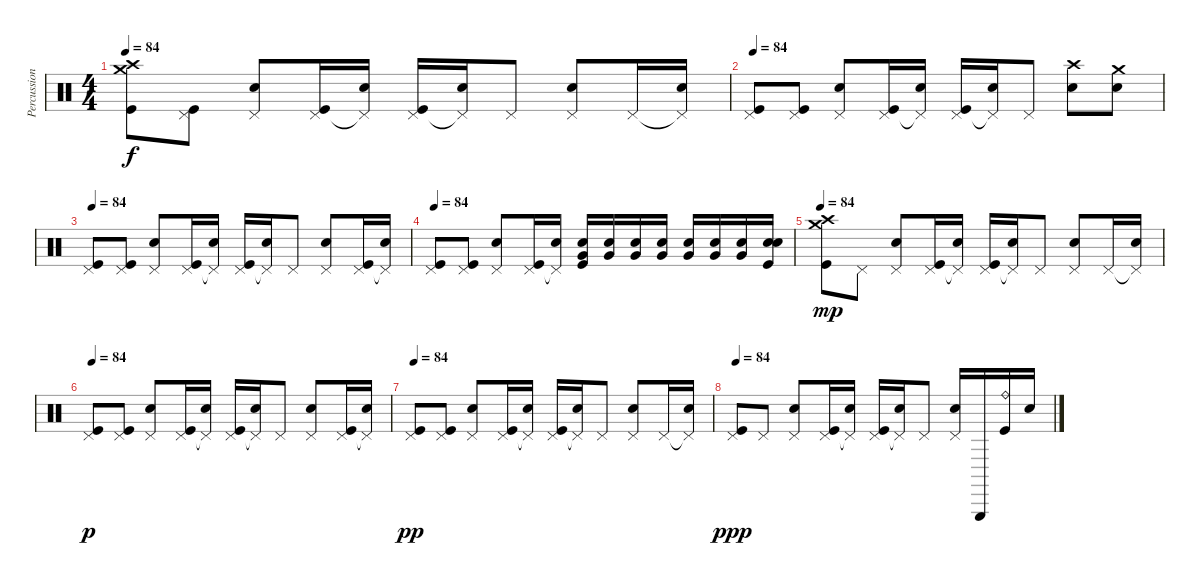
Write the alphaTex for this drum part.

\track ("Percussion" "Percussion") {instrument percussion}
\staff {score}
\articulation defaults
\ts (4 4)
\tempo 84
\clef neutral
\ks c
("Crash medium (hit)" "Crash high (hit)" "Kick (hit)").8{dy f} ("Pedal Hi-Hat (hit)" "Kick (hit)").8 ("Pedal Hi-Hat (hit)" "Electric Snare (hit)").8 ("Pedal Hi-Hat (hit)" "Kick (hit)").16 ("Pedal Hi-Hat (hit)"{t} "Electric Snare (hit)").16 ("Pedal Hi-Hat (hit)" "Kick (hit)").16 ("Pedal Hi-Hat (hit)"{t} "Electric Snare (hit)").16 "Pedal Hi-Hat (hit)".8 ("Pedal Hi-Hat (hit)" "Electric Snare (hit)").8 "Pedal Hi-Hat (hit)".16 ("Pedal Hi-Hat (hit)"{t} "Electric Snare (hit)").16 |
\tempo 84
("Pedal Hi-Hat (hit)" "Kick (hit)").8 ("Pedal Hi-Hat (hit)" "Kick (hit)").8 ("Pedal Hi-Hat (hit)" "Electric Snare (hit)").8 ("Pedal Hi-Hat (hit)" "Kick (hit)").16 ("Pedal Hi-Hat (hit)"{t} "Electric Snare (hit)").16 ("Pedal Hi-Hat (hit)" "Kick (hit)").16 ("Pedal Hi-Hat (hit)"{t} "Electric Snare (hit)").16 "Pedal Hi-Hat (hit)".8 ("Crash high (hit)" "Electric Snare (hit)").8 ("Crash medium (hit)" "Electric Snare (hit)").8 |
\tempo 84
("Pedal Hi-Hat (hit)" "Kick (hit)").8 ("Pedal Hi-Hat (hit)" "Kick (hit)").8 ("Pedal Hi-Hat (hit)" "Electric Snare (hit)").8 ("Pedal Hi-Hat (hit)" "Kick (hit)").16 ("Pedal Hi-Hat (hit)"{t} "Electric Snare (hit)").16 ("Pedal Hi-Hat (hit)" "Kick (hit)").16 ("Pedal Hi-Hat (hit)"{t} "Electric Snare (hit)").16 "Pedal Hi-Hat (hit)".8 ("Pedal Hi-Hat (hit)" "Electric Snare (hit)").8 ("Pedal Hi-Hat (hit)" "Kick (hit)").16 ("Pedal Hi-Hat (hit)"{t} "Electric Snare (hit)").16 |
\tempo 84
("Pedal Hi-Hat (hit)" "Kick (hit)").8 ("Pedal Hi-Hat (hit)" "Kick (hit)").8 ("Pedal Hi-Hat (hit)" "Electric Snare (hit)").8 ("Pedal Hi-Hat (hit)" "Kick (hit)").16 ("Pedal Hi-Hat (hit)"{t} "Electric Snare (hit)").16 ("Very Low Tom (hit)" "Electric Snare (hit)" "Kick (hit)").16 ("Very Low Tom (hit)" "Electric Snare (hit)").16 ("Very Low Tom (hit)" "Electric Snare (hit)").16 ("Very Low Tom (hit)" "Electric Snare (hit)").16 ("Very Low Tom (hit)" "Electric Snare (hit)").16 ("Very Low Tom (hit)" "Electric Snare (hit)").16 ("Very Low Tom (hit)" "Electric Snare (hit)").16 ("Electric Snare (hit)" "Electric Snare (hit)" "Kick (hit)").16 |
\tempo 84
("Crash medium (hit)" "Crash high (hit)" "Kick (hit)").8{dy mp} "Pedal Hi-Hat (hit)".8 ("Pedal Hi-Hat (hit)" "Electric Snare (hit)").8 ("Pedal Hi-Hat (hit)" "Kick (hit)").16 ("Pedal Hi-Hat (hit)"{t} "Electric Snare (hit)").16 ("Pedal Hi-Hat (hit)" "Kick (hit)").16 ("Pedal Hi-Hat (hit)"{t} "Electric Snare (hit)").16 "Pedal Hi-Hat (hit)".8 ("Pedal Hi-Hat (hit)" "Electric Snare (hit)").8 "Pedal Hi-Hat (hit)".16 ("Pedal Hi-Hat (hit)"{t} "Electric Snare (hit)").16 |
\tempo 84
("Pedal Hi-Hat (hit)" "Kick (hit)").8{dy p} ("Pedal Hi-Hat (hit)" "Kick (hit)").8 ("Pedal Hi-Hat (hit)" "Electric Snare (hit)").8 ("Pedal Hi-Hat (hit)" "Kick (hit)").16 ("Pedal Hi-Hat (hit)"{t} "Electric Snare (hit)").16 ("Pedal Hi-Hat (hit)" "Kick (hit)").16 ("Pedal Hi-Hat (hit)"{t} "Electric Snare (hit)").16 "Pedal Hi-Hat (hit)".8 ("Pedal Hi-Hat (hit)" "Electric Snare (hit)").8 ("Pedal Hi-Hat (hit)" "Kick (hit)").16 ("Pedal Hi-Hat (hit)"{t} "Electric Snare (hit)").16 |
\tempo 84
("Pedal Hi-Hat (hit)" "Kick (hit)").8{dy pp} ("Pedal Hi-Hat (hit)" "Kick (hit)").8 ("Pedal Hi-Hat (hit)" "Electric Snare (hit)").8 ("Pedal Hi-Hat (hit)" "Kick (hit)").16 ("Pedal Hi-Hat (hit)"{t} "Electric Snare (hit)").16 ("Pedal Hi-Hat (hit)" "Kick (hit)").16 ("Pedal Hi-Hat (hit)"{t} "Electric Snare (hit)").16 "Pedal Hi-Hat (hit)".8 ("Pedal Hi-Hat (hit)" "Electric Snare (hit)").8 "Pedal Hi-Hat (hit)".16 ("Pedal Hi-Hat (hit)"{t} "Electric Snare (hit)").16 |
\tempo 84
("Pedal Hi-Hat (hit)" "Kick (hit)").8{dy ppp} "Pedal Hi-Hat (hit)".8 ("Pedal Hi-Hat (hit)" "Electric Snare (hit)").8 ("Pedal Hi-Hat (hit)" "Kick (hit)").16 ("Pedal Hi-Hat (hit)"{t} "Electric Snare (hit)").16 ("Pedal Hi-Hat (hit)" "Kick (hit)").16 ("Pedal Hi-Hat (hit)"{t} "Electric Snare (hit)").16 "Pedal Hi-Hat (hit)".8 ("Pedal Hi-Hat (hit)" "Electric Snare (hit)").16{volume 0} "Triangle (hit)".16 ("Ride (bell)" "Kick (hit)").16 "Electric Snare (hit)".16
